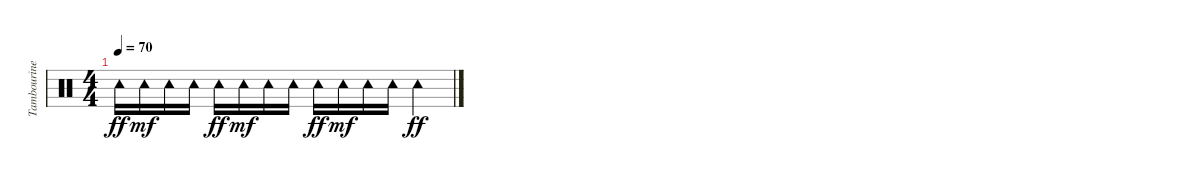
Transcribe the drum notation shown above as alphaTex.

\track ("Tambourine" "Tambourine") {instrument percussion}
\staff {score}
\articulation defaults
\ts (4 4)
\tempo 70
\clef neutral
\ks c "Tambourine (hit)".16{dy ff} "Tambourine (hit)".16{dy mf} "Tambourine (hit)".16 "Tambourine (hit)".16 "Tambourine (hit)".16{dy ff} "Tambourine (hit)".16{dy mf} "Tambourine (hit)".16 "Tambourine (hit)".16 "Tambourine (hit)".16{dy ff} "Tambourine (hit)".16{dy mf} "Tambourine (hit)".16 "Tambourine (hit)".16 "Tambourine (hit)".4{dy ff}
